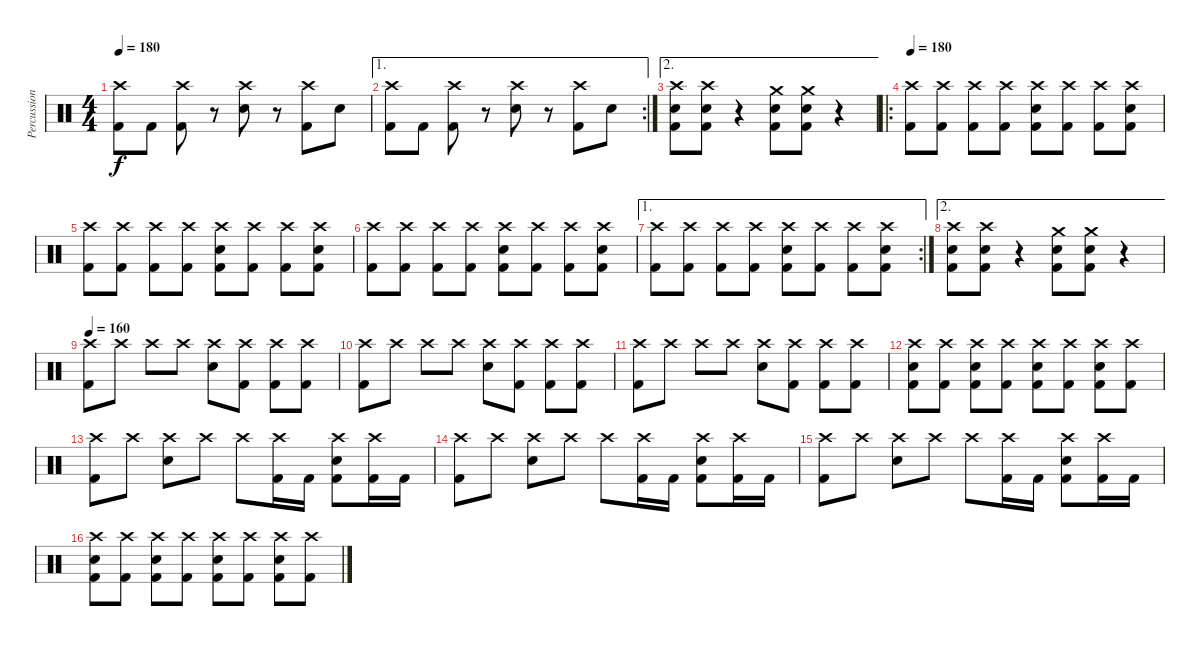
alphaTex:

\track ("Percussion" "Percussion") {instrument percussion}
\staff {score}
\articulation defaults
\ts (4 4)
\tempo 180
\clef neutral
\ks c
("Crash high (hit)" "Kick (hit) 2").8{dy f} "Kick (hit) 2".8 ("Crash high (hit)" "Kick (hit) 2").8 r.8 ("Crash high (hit)" "Snare (hit) 2").8 r.8 ("Crash high (hit)" "Kick (hit) 2").8 "Snare (hit) 2".8 |
\ae 1
\rc 2
("Crash high (hit)" "Kick (hit) 2").8 "Kick (hit) 2".8 ("Crash high (hit)" "Kick (hit) 2").8 r.8 ("Crash high (hit)" "Snare (hit) 2").8 r.8 ("Crash high (hit)" "Kick (hit) 2").8 "Snare (hit) 2".8 |
\ae 2
("Kick (hit) 2" "Snare (hit) 2" "Crash high (hit)").8 ("Kick (hit) 2" "Snare (hit) 2" "Crash high (hit)").8 r.4 ("Kick (hit) 2" "Snare (hit) 2" "Crash medium (hit)").8 ("Kick (hit) 2" "Snare (hit) 2" "Crash medium (hit)").8 r.4 |
\ro
\tempo 180
("Crash high (hit)" "Kick (hit) 2").8 ("Crash high (hit)" "Kick (hit) 2").8 ("Crash high (hit)" "Kick (hit) 2").8 ("Crash high (hit)" "Kick (hit) 2").8 ("Crash high (hit)" "Snare (hit) 2" "Kick (hit) 2").8 ("Crash high (hit)" "Kick (hit) 2").8 ("Crash high (hit)" "Kick (hit) 2").8 ("Crash high (hit)" "Snare (hit) 2" "Kick (hit) 2").8 |
("Crash high (hit)" "Kick (hit) 2").8 ("Crash high (hit)" "Kick (hit) 2").8 ("Crash high (hit)" "Kick (hit) 2").8 ("Crash high (hit)" "Kick (hit) 2").8 ("Crash high (hit)" "Snare (hit) 2" "Kick (hit) 2").8 ("Crash high (hit)" "Kick (hit) 2").8 ("Crash high (hit)" "Kick (hit) 2").8 ("Crash high (hit)" "Snare (hit) 2" "Kick (hit) 2").8 |
("Crash high (hit)" "Kick (hit) 2").8 ("Crash high (hit)" "Kick (hit) 2").8 ("Crash high (hit)" "Kick (hit) 2").8 ("Crash high (hit)" "Kick (hit) 2").8 ("Crash high (hit)" "Snare (hit) 2" "Kick (hit) 2").8 ("Crash high (hit)" "Kick (hit) 2").8 ("Crash high (hit)" "Kick (hit) 2").8 ("Crash high (hit)" "Snare (hit) 2" "Kick (hit) 2").8 |
\ae 1
\rc 2
("Crash high (hit)" "Kick (hit) 2").8 ("Crash high (hit)" "Kick (hit) 2").8 ("Crash high (hit)" "Kick (hit) 2").8 ("Crash high (hit)" "Kick (hit) 2").8 ("Crash high (hit)" "Snare (hit) 2" "Kick (hit) 2").8 ("Crash high (hit)" "Kick (hit) 2").8 ("Crash high (hit)" "Kick (hit) 2").8 ("Crash high (hit)" "Snare (hit) 2" "Kick (hit) 2").8 |
\ae 2
("Kick (hit) 2" "Snare (hit) 2" "Crash high (hit)").8 ("Kick (hit) 2" "Snare (hit) 2" "Crash high (hit)").8 r.4 ("Kick (hit) 2" "Snare (hit) 2" "Crash medium (hit)").8 ("Kick (hit) 2" "Snare (hit) 2" "Crash medium (hit)").8 r.4 |
\tempo 160
("Crash high (hit)" "Kick (hit) 2").8 "Crash high (hit)".8 "Crash high (hit)".8 "Crash high (hit)".8 ("Crash high (hit)" "Snare (hit) 2").8 ("Crash high (hit)" "Kick (hit) 2").8 ("Crash high (hit)" "Kick (hit) 2").8 ("Crash high (hit)" "Kick (hit) 2").8 |
("Crash high (hit)" "Kick (hit) 2").8 "Crash high (hit)".8 "Crash high (hit)".8 "Crash high (hit)".8 ("Crash high (hit)" "Snare (hit) 2").8 ("Crash high (hit)" "Kick (hit) 2").8 ("Crash high (hit)" "Kick (hit) 2").8 ("Crash high (hit)" "Kick (hit) 2").8 |
("Crash high (hit)" "Kick (hit) 2").8 "Crash high (hit)".8 "Crash high (hit)".8 "Crash high (hit)".8 ("Crash high (hit)" "Snare (hit) 2").8 ("Crash high (hit)" "Kick (hit) 2").8 ("Crash high (hit)" "Kick (hit) 2").8 ("Crash high (hit)" "Kick (hit) 2").8 |
("Crash high (hit)" "Snare (hit) 2" "Kick (hit) 2").8 ("Crash high (hit)" "Kick (hit) 2").8 ("Crash high (hit)" "Snare (hit) 2" "Kick (hit) 2").8 ("Crash high (hit)" "Kick (hit) 2").8 ("Crash high (hit)" "Snare (hit) 2" "Kick (hit) 2").8 ("Crash high (hit)" "Kick (hit) 2").8 ("Crash high (hit)" "Snare (hit) 2" "Kick (hit) 2").8 ("Crash high (hit)" "Kick (hit) 2").8 |
("Crash high (hit)" "Kick (hit) 2").8 "Crash high (hit)".8 ("Crash high (hit)" "Snare (hit) 2").8 "Crash high (hit)".8 "Crash high (hit)".8 ("Crash high (hit)" "Kick (hit) 2").16 "Kick (hit) 2".16 ("Crash high (hit)" "Snare (hit) 2" "Kick (hit) 2").8 ("Crash high (hit)" "Kick (hit) 2").16 "Kick (hit) 2".16 |
("Crash high (hit)" "Kick (hit) 2").8 "Crash high (hit)".8 ("Crash high (hit)" "Snare (hit) 2").8 "Crash high (hit)".8 "Crash high (hit)".8 ("Crash high (hit)" "Kick (hit) 2").16 "Kick (hit) 2".16 ("Crash high (hit)" "Snare (hit) 2" "Kick (hit) 2").8 ("Crash high (hit)" "Kick (hit) 2").16 "Kick (hit) 2".16 |
("Crash high (hit)" "Kick (hit) 2").8 "Crash high (hit)".8 ("Crash high (hit)" "Snare (hit) 2").8 "Crash high (hit)".8 "Crash high (hit)".8 ("Crash high (hit)" "Kick (hit) 2").16 "Kick (hit) 2".16 ("Crash high (hit)" "Snare (hit) 2" "Kick (hit) 2").8 ("Crash high (hit)" "Kick (hit) 2").16 "Kick (hit) 2".16 |
("Crash high (hit)" "Snare (hit) 2" "Kick (hit) 2").8 ("Crash high (hit)" "Kick (hit) 2").8 ("Crash high (hit)" "Snare (hit) 2" "Kick (hit) 2").8 ("Crash high (hit)" "Kick (hit) 2").8 ("Crash high (hit)" "Snare (hit) 2" "Kick (hit) 2").8 ("Crash high (hit)" "Kick (hit) 2").8 ("Crash high (hit)" "Snare (hit) 2" "Kick (hit) 2").8 ("Crash high (hit)" "Kick (hit) 2").8
